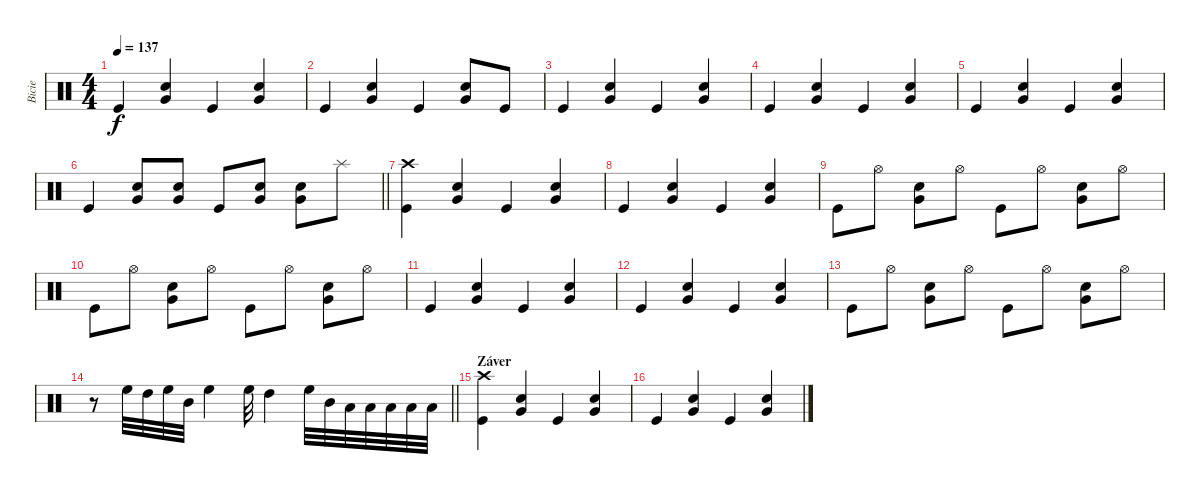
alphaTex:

\track ("Bicie" "Bicie") {instrument percussion}
\staff {score}
\articulation defaults
\ts (4 4)
\tempo 137
\clef neutral
\ks c "Kick (hit)".4{dy f}
("Very Low Tom (hit)" "Snare (hit) 2").4 "Kick (hit)".4 ("Very Low Tom (hit)" "Snare (hit) 2").4 |
"Kick (hit)".4 ("Very Low Tom (hit)" "Snare (hit) 2").4 "Kick (hit)".4 ("Very Low Tom (hit)" "Snare (hit) 2").8 "Kick (hit)".8 |
"Kick (hit)".4 ("Very Low Tom (hit)" "Snare (hit) 2").4 "Kick (hit)".4 ("Very Low Tom (hit)" "Snare (hit) 2").4 |
"Kick (hit)".4 ("Very Low Tom (hit)" "Snare (hit) 2").4 "Kick (hit)".4 ("Very Low Tom (hit)" "Snare (hit) 2").4 |
"Kick (hit)".4 ("Very Low Tom (hit)" "Snare (hit) 2").4 "Kick (hit)".4 ("Very Low Tom (hit)" "Snare (hit) 2").4 |
\barLineRight lightlight "Kick (hit)".4
("Very Low Tom (hit)" "Snare (hit) 2").8 ("Very Low Tom (hit)" "Snare (hit) 2").8 "Kick (hit)".8 ("Very Low Tom (hit)" "Snare (hit) 2").8 ("Very Low Tom (hit)" "Snare (hit) 2").8 "Splash (hit)".8 |
("Crash high (hit)" "Kick (hit)").4 ("Very Low Tom (hit)" "Snare (hit) 2").4 "Kick (hit)".4 ("Very Low Tom (hit)" "Snare (hit) 2").4 |
"Kick (hit)".4 ("Very Low Tom (hit)" "Snare (hit) 2").4 "Kick (hit)".4 ("Very Low Tom (hit)" "Snare (hit) 2").4 |
"Kick (hit)".8 "Hi-Hat (open)".8 ("Very Low Tom (hit)" "Snare (hit) 2").8 "Hi-Hat (open)".8 "Kick (hit)".8 "Hi-Hat (open)".8 ("Very Low Tom (hit)" "Snare (hit) 2").8 "Hi-Hat (open)".8 |
"Kick (hit)".8 "Hi-Hat (open)".8 ("Very Low Tom (hit)" "Snare (hit) 2").8 "Hi-Hat (open)".8 "Kick (hit)".8 "Hi-Hat (open)".8 ("Very Low Tom (hit)" "Snare (hit) 2").8 "Hi-Hat (open)".8 |
"Kick (hit)".4 ("Very Low Tom (hit)" "Snare (hit) 2").4 "Kick (hit)".4 ("Very Low Tom (hit)" "Snare (hit) 2").4 |
"Kick (hit)".4 ("Very Low Tom (hit)" "Snare (hit) 2").4 "Kick (hit)".4 ("Very Low Tom (hit)" "Snare (hit) 2").4 |
"Kick (hit)".8 "Hi-Hat (open)".8 ("Very Low Tom (hit)" "Snare (hit) 2").8 "Hi-Hat (open)".8 "Kick (hit)".8 "Hi-Hat (open)".8 ("Very Low Tom (hit)" "Snare (hit) 2").8 "Hi-Hat (open)".8 |
\barLineRight lightlight
r.8 "High Floor Tom (hit)".32 "High Tom (hit)".32 "High Floor Tom (hit)".32 "Mid Tom (hit)".32 "High Floor Tom (hit)".4 "High Floor Tom (hit)".32 "High Tom (hit)".4 "High Floor Tom (hit)".32 "Mid Tom (hit)".32 "Low Tom (hit)".32 "Low Floor Tom (hit)".32 "Low Floor Tom (hit)".32 "Low Tom (hit)".32 "Low Floor Tom (hit)".32 |
\section ("" "Záver")
("Crash high (hit)" "Kick (hit)").4 ("Very Low Tom (hit)" "Snare (hit) 2").4 "Kick (hit)".4 ("Very Low Tom (hit)" "Snare (hit) 2").4 |
"Kick (hit)".4 ("Very Low Tom (hit)" "Snare (hit) 2").4 "Kick (hit)".4 ("Very Low Tom (hit)" "Snare (hit) 2").4
